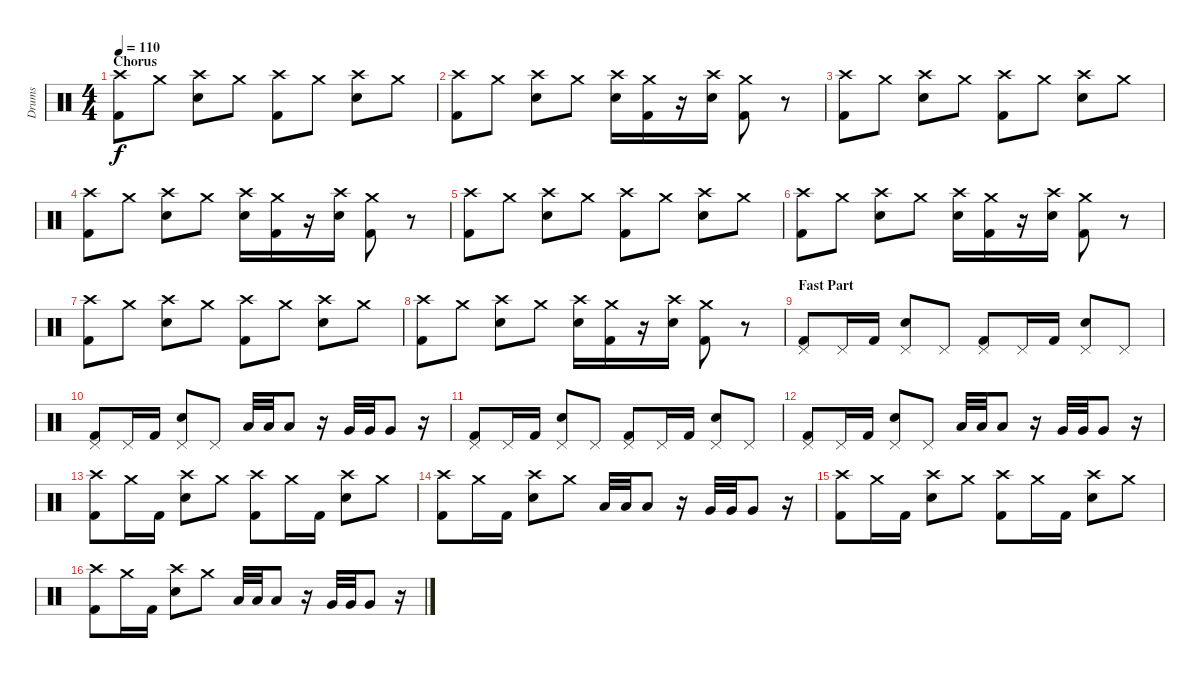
\track ("Drums" "Drums") {instrument percussion}
\staff {score}
\articulation defaults
\ts (4 4)
\section ("" "Chorus")
\tempo 110
\clef neutral
\ks c
("Crash high (hit)" "Kick (hit) 2").8{dy f} "Crash medium (hit)".8 ("Crash high (hit)" "Electric Snare (hit)").8 "Crash medium (hit)".8 ("Crash high (hit)" "Kick (hit) 2").8 "Crash medium (hit)".8 ("Crash high (hit)" "Electric Snare (hit)").8 "Crash medium (hit)".8 |
("Crash high (hit)" "Kick (hit) 2").8 "Crash medium (hit)".8 ("Crash high (hit)" "Electric Snare (hit)").8 "Crash medium (hit)".8 ("Crash high (hit)" "Electric Snare (hit)").16 ("Crash medium (hit)" "Kick (hit) 2").16 r.16 ("Crash high (hit)" "Electric Snare (hit)").16 ("Crash medium (hit)" "Kick (hit) 2").8 r.8 |
("Crash high (hit)" "Kick (hit) 2").8 "Crash medium (hit)".8 ("Crash high (hit)" "Electric Snare (hit)").8 "Crash medium (hit)".8 ("Crash high (hit)" "Kick (hit) 2").8 "Crash medium (hit)".8 ("Crash high (hit)" "Electric Snare (hit)").8 "Crash medium (hit)".8 |
("Crash high (hit)" "Kick (hit) 2").8 "Crash medium (hit)".8 ("Crash high (hit)" "Electric Snare (hit)").8 "Crash medium (hit)".8 ("Crash high (hit)" "Electric Snare (hit)").16 ("Crash medium (hit)" "Kick (hit) 2").16 r.16 ("Crash high (hit)" "Electric Snare (hit)").16 ("Crash medium (hit)" "Kick (hit) 2").8 r.8 |
("Crash high (hit)" "Kick (hit) 2").8 "Crash medium (hit)".8 ("Crash high (hit)" "Electric Snare (hit)").8 "Crash medium (hit)".8 ("Crash high (hit)" "Kick (hit) 2").8 "Crash medium (hit)".8 ("Crash high (hit)" "Electric Snare (hit)").8 "Crash medium (hit)".8 |
("Crash high (hit)" "Kick (hit) 2").8 "Crash medium (hit)".8 ("Crash high (hit)" "Electric Snare (hit)").8 "Crash medium (hit)".8 ("Crash high (hit)" "Electric Snare (hit)").16 ("Crash medium (hit)" "Kick (hit) 2").16 r.16 ("Crash high (hit)" "Electric Snare (hit)").16 ("Crash medium (hit)" "Kick (hit) 2").8 r.8 |
("Crash high (hit)" "Kick (hit) 2").8 "Crash medium (hit)".8 ("Crash high (hit)" "Electric Snare (hit)").8 "Crash medium (hit)".8 ("Crash high (hit)" "Kick (hit) 2").8 "Crash medium (hit)".8 ("Crash high (hit)" "Electric Snare (hit)").8 "Crash medium (hit)".8 |
("Crash high (hit)" "Kick (hit) 2").8 "Crash medium (hit)".8 ("Crash high (hit)" "Electric Snare (hit)").8 "Crash medium (hit)".8 ("Crash high (hit)" "Electric Snare (hit)").16 ("Crash medium (hit)" "Kick (hit) 2").16 r.16 ("Crash high (hit)" "Electric Snare (hit)").16 ("Crash medium (hit)" "Kick (hit) 2").8 r.8 |
\section ("" "Fast Part")
("Pedal Hi-Hat (hit)" "Kick (hit) 2").8 "Pedal Hi-Hat (hit)".16 "Kick (hit) 2".16 ("Pedal Hi-Hat (hit)" "Electric Snare (hit)").8 "Pedal Hi-Hat (hit)".8 ("Pedal Hi-Hat (hit)" "Kick (hit) 2").8 "Pedal Hi-Hat (hit)".16 "Kick (hit) 2".16 ("Pedal Hi-Hat (hit)" "Electric Snare (hit)").8 "Pedal Hi-Hat (hit)".8 |
("Pedal Hi-Hat (hit)" "Kick (hit) 2").8 "Pedal Hi-Hat (hit)".16 "Kick (hit) 2".16 ("Pedal Hi-Hat (hit)" "Electric Snare (hit)").8 "Pedal Hi-Hat (hit)".8 "Low Tom (hit)".32 "Low Tom (hit)".32 "Low Tom (hit)".8 r.16 "Very Low Tom (hit)".32 "Very Low Tom (hit)".32 "Very Low Tom (hit)".8 r.16 |
("Pedal Hi-Hat (hit)" "Kick (hit) 2").8 "Pedal Hi-Hat (hit)".16 "Kick (hit) 2".16 ("Pedal Hi-Hat (hit)" "Electric Snare (hit)").8 "Pedal Hi-Hat (hit)".8 ("Pedal Hi-Hat (hit)" "Kick (hit) 2").8 "Pedal Hi-Hat (hit)".16 "Kick (hit) 2".16 ("Pedal Hi-Hat (hit)" "Electric Snare (hit)").8 "Pedal Hi-Hat (hit)".8 |
("Pedal Hi-Hat (hit)" "Kick (hit) 2").8 "Pedal Hi-Hat (hit)".16 "Kick (hit) 2".16 ("Pedal Hi-Hat (hit)" "Electric Snare (hit)").8 "Pedal Hi-Hat (hit)".8 "Low Tom (hit)".32 "Low Tom (hit)".32 "Low Tom (hit)".8 r.16 "Very Low Tom (hit)".32 "Very Low Tom (hit)".32 "Very Low Tom (hit)".8 r.16 |
("Crash high (hit)" "Kick (hit) 2").8 "Crash medium (hit)".16 "Kick (hit) 2".16 ("Crash high (hit)" "Electric Snare (hit)").8 "Crash medium (hit)".8 ("Crash high (hit)" "Kick (hit) 2").8 "Crash medium (hit)".16 "Kick (hit) 2".16 ("Crash high (hit)" "Electric Snare (hit)").8 "Crash medium (hit)".8 |
("Crash high (hit)" "Kick (hit) 2").8 "Crash medium (hit)".16 "Kick (hit) 2".16 ("Crash high (hit)" "Electric Snare (hit)").8 "Crash medium (hit)".8 "Low Tom (hit)".32 "Low Tom (hit)".32 "Low Tom (hit)".8 r.16 "Very Low Tom (hit)".32 "Very Low Tom (hit)".32 "Very Low Tom (hit)".8 r.16 |
("Crash high (hit)" "Kick (hit) 2").8 "Crash medium (hit)".16 "Kick (hit) 2".16 ("Crash high (hit)" "Electric Snare (hit)").8 "Crash medium (hit)".8 ("Crash high (hit)" "Kick (hit) 2").8 "Crash medium (hit)".16 "Kick (hit) 2".16 ("Crash high (hit)" "Electric Snare (hit)").8 "Crash medium (hit)".8 |
("Crash high (hit)" "Kick (hit) 2").8 "Crash medium (hit)".16 "Kick (hit) 2".16 ("Crash high (hit)" "Electric Snare (hit)").8 "Crash medium (hit)".8 "Low Tom (hit)".32 "Low Tom (hit)".32 "Low Tom (hit)".8 r.16 "Very Low Tom (hit)".32 "Very Low Tom (hit)".32 "Very Low Tom (hit)".8 r.16
